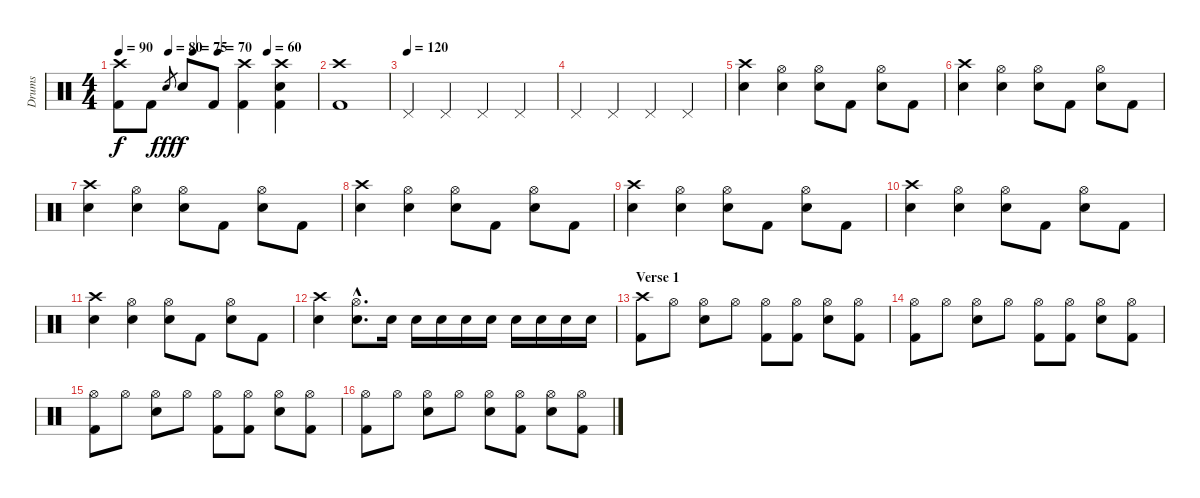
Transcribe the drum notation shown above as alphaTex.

\track ("Drums" "Drums") {instrument percussion}
\staff {score}
\articulation defaults
\ts (4 4)
\tempo 90
\tempo (80 0.25)
\tempo (75 0.375)
\tempo (70 0.5)
\tempo (60 0.75)
\clef neutral
\ks c
("Crash high (hit)" "Kick (hit) 2").8{dy f} "Kick (hit) 2".8 "Electric Snare (hit)".8{gr dy fff} "Electric Snare (hit)".8{dy f} "Kick (hit) 2".8 ("Crash high (hit)" "Kick (hit) 2").4 ("Crash high (hit)" "Electric Snare (hit)" "Kick (hit) 2").4 |
("Crash high (hit)" "Kick (hit) 2").1 |
\tempo (120)
"Pedal Hi-Hat (hit)".4 "Pedal Hi-Hat (hit)".4 "Pedal Hi-Hat (hit)".4 "Pedal Hi-Hat (hit)".4 |
"Pedal Hi-Hat (hit)".4 "Pedal Hi-Hat (hit)".4 "Pedal Hi-Hat (hit)".4 "Pedal Hi-Hat (hit)".4 |
("Crash high (hit)" "Electric Snare (hit)").4 ("Hi-Hat (open)" "Electric Snare (hit)").4 ("Hi-Hat (open)" "Electric Snare (hit)").8 "Kick (hit) 2".8 ("Hi-Hat (open)" "Electric Snare (hit)").8 "Kick (hit) 2".8 |
("Crash high (hit)" "Electric Snare (hit)").4 ("Hi-Hat (open)" "Electric Snare (hit)").4 ("Hi-Hat (open)" "Electric Snare (hit)").8 "Kick (hit) 2".8 ("Hi-Hat (open)" "Electric Snare (hit)").8 "Kick (hit) 2".8 |
("Crash high (hit)" "Electric Snare (hit)").4 ("Hi-Hat (open)" "Electric Snare (hit)").4 ("Hi-Hat (open)" "Electric Snare (hit)").8 "Kick (hit) 2".8 ("Hi-Hat (open)" "Electric Snare (hit)").8 "Kick (hit) 2".8 |
("Crash high (hit)" "Electric Snare (hit)").4 ("Hi-Hat (open)" "Electric Snare (hit)").4 ("Hi-Hat (open)" "Electric Snare (hit)").8 "Kick (hit) 2".8 ("Hi-Hat (open)" "Electric Snare (hit)").8 "Kick (hit) 2".8 |
("Crash high (hit)" "Electric Snare (hit)").4 ("Hi-Hat (open)" "Electric Snare (hit)").4 ("Hi-Hat (open)" "Electric Snare (hit)").8 "Kick (hit) 2".8 ("Hi-Hat (open)" "Electric Snare (hit)").8 "Kick (hit) 2".8 |
("Crash high (hit)" "Electric Snare (hit)").4 ("Hi-Hat (open)" "Electric Snare (hit)").4 ("Hi-Hat (open)" "Electric Snare (hit)").8 "Kick (hit) 2".8 ("Hi-Hat (open)" "Electric Snare (hit)").8 "Kick (hit) 2".8 |
("Crash high (hit)" "Electric Snare (hit)").4 ("Hi-Hat (open)" "Electric Snare (hit)").4 ("Hi-Hat (open)" "Electric Snare (hit)").8 "Kick (hit) 2".8 ("Hi-Hat (open)" "Electric Snare (hit)").8 "Kick (hit) 2".8 |
("Crash high (hit)" "Electric Snare (hit)").4 ("Hi-Hat (open)"{hac} "Electric Snare (hit)"{hac}).8{d} "Electric Snare (hit)".16 "Electric Snare (hit)".16 "Electric Snare (hit)".16 "Electric Snare (hit)".16 "Electric Snare (hit)".16 "Electric Snare (hit)".16 "Electric Snare (hit)".16 "Electric Snare (hit)".16 "Electric Snare (hit)".16 |
\section ("" "Verse 1")
("Crash high (hit)" "Kick (hit) 2").8 "Hi-Hat (open)".8 ("Hi-Hat (open)" "Electric Snare (hit)").8 "Hi-Hat (open)".8 ("Hi-Hat (open)" "Kick (hit) 2").8 ("Hi-Hat (open)" "Kick (hit) 2").8 ("Hi-Hat (open)" "Electric Snare (hit)").8 ("Hi-Hat (open)" "Kick (hit) 2").8 |
("Hi-Hat (open)" "Kick (hit) 2").8 "Hi-Hat (open)".8 ("Hi-Hat (open)" "Electric Snare (hit)").8 "Hi-Hat (open)".8 ("Hi-Hat (open)" "Kick (hit) 2").8 ("Hi-Hat (open)" "Kick (hit) 2").8 ("Hi-Hat (open)" "Electric Snare (hit)").8 ("Hi-Hat (open)" "Kick (hit) 2").8 |
("Hi-Hat (open)" "Kick (hit) 2").8 "Hi-Hat (open)".8 ("Hi-Hat (open)" "Electric Snare (hit)").8 "Hi-Hat (open)".8 ("Hi-Hat (open)" "Kick (hit) 2").8 ("Hi-Hat (open)" "Kick (hit) 2").8 ("Hi-Hat (open)" "Electric Snare (hit)").8 ("Hi-Hat (open)" "Kick (hit) 2").8 |
("Hi-Hat (open)" "Kick (hit) 2").8 "Hi-Hat (open)".8 ("Hi-Hat (open)" "Electric Snare (hit)").8 "Hi-Hat (open)".8 ("Hi-Hat (open)" "Electric Snare (hit)").8 ("Hi-Hat (open)" "Kick (hit) 2").8 ("Hi-Hat (open)" "Electric Snare (hit)").8 ("Hi-Hat (open)" "Kick (hit) 2").8
